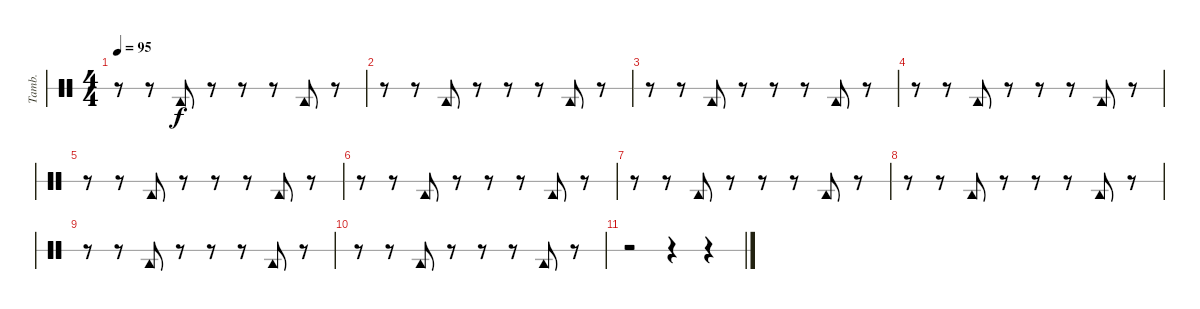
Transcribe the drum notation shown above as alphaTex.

\bracketExtendMode groupsimilarinstruments
\otherSystemsTrackNameOrientation horizontal
\track ("Tambourine" "Tamb.") {instrument percussion}
\staff {score 1}
\articulation defaults
\ts (4 4)
\tempo 95
\clef neutral
\ks c
r.8{dy f} r.8 "Tambourine (hit)".8 r.8 r.8 r.8 "Tambourine (hit)".8 r.8 |
r.8 r.8 "Tambourine (hit)".8 r.8 r.8 r.8 "Tambourine (hit)".8 r.8 |
r.8 r.8 "Tambourine (hit)".8 r.8 r.8 r.8 "Tambourine (hit)".8 r.8 |
r.8 r.8 "Tambourine (hit)".8 r.8 r.8 r.8 "Tambourine (hit)".8 r.8 |
r.8 r.8 "Tambourine (hit)".8 r.8 r.8 r.8 "Tambourine (hit)".8 r.8 |
r.8 r.8 "Tambourine (hit)".8 r.8 r.8 r.8 "Tambourine (hit)".8 r.8 |
r.8 r.8 "Tambourine (hit)".8 r.8 r.8 r.8 "Tambourine (hit)".8 r.8 |
r.8 r.8 "Tambourine (hit)".8 r.8 r.8 r.8 "Tambourine (hit)".8 r.8 |
r.8 r.8 "Tambourine (hit)".8 r.8 r.8 r.8 "Tambourine (hit)".8 r.8 |
r.8 r.8 "Tambourine (hit)".8 r.8 r.8 r.8 "Tambourine (hit)".8 r.8 |
r.2 r.4 r.4
